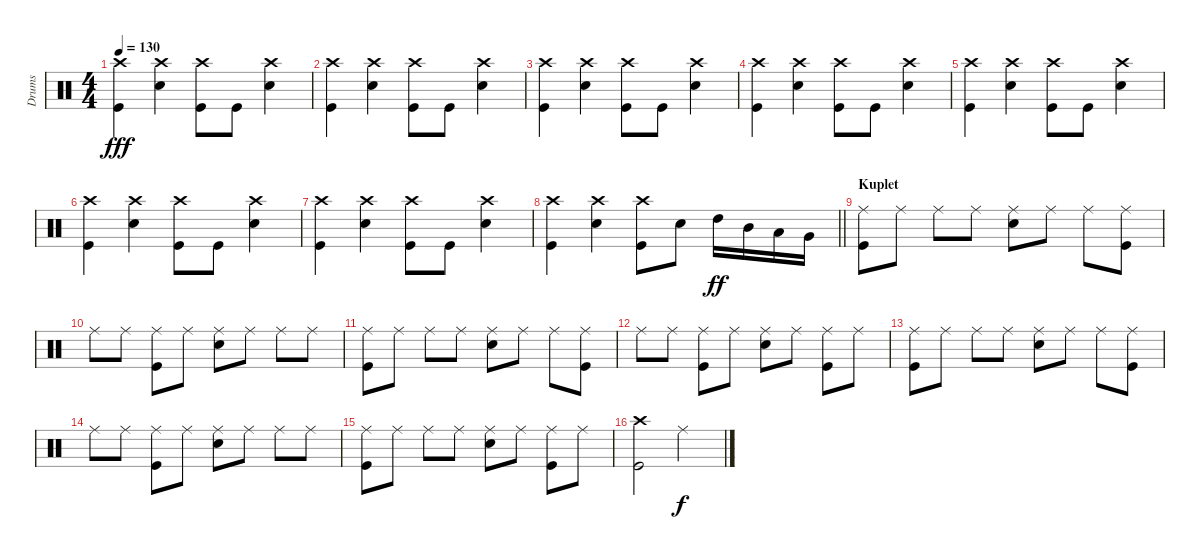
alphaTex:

\track ("Drums" "Drums") {instrument percussion}
\staff {score}
\articulation defaults
\ts (4 4)
\tempo 130
\clef neutral
\ks c
("Crash high (hit)" "Kick (hit)").4{dy fff} ("Crash high (hit)" "Snare (hit) 2").4 ("Crash high (hit)" "Kick (hit)").8 "Kick (hit)".8 ("Crash high (hit)" "Snare (hit) 2").4 |
("Crash high (hit)" "Kick (hit)").4 ("Crash high (hit)" "Snare (hit) 2").4 ("Crash high (hit)" "Kick (hit)").8 "Kick (hit)".8 ("Crash high (hit)" "Snare (hit) 2").4 |
("Crash high (hit)" "Kick (hit)").4 ("Crash high (hit)" "Snare (hit) 2").4 ("Crash high (hit)" "Kick (hit)").8 "Kick (hit)".8 ("Crash high (hit)" "Snare (hit) 2").4 |
("Crash high (hit)" "Kick (hit)").4 ("Crash high (hit)" "Snare (hit) 2").4 ("Crash high (hit)" "Kick (hit)").8 "Kick (hit)".8 ("Crash high (hit)" "Snare (hit) 2").4 |
("Crash high (hit)" "Kick (hit)").4 ("Crash high (hit)" "Snare (hit) 2").4 ("Crash high (hit)" "Kick (hit)").8 "Kick (hit)".8 ("Crash high (hit)" "Snare (hit) 2").4 |
("Crash high (hit)" "Kick (hit)").4 ("Crash high (hit)" "Snare (hit) 2").4 ("Crash high (hit)" "Kick (hit)").8 "Kick (hit)".8 ("Crash high (hit)" "Snare (hit) 2").4 |
("Crash high (hit)" "Kick (hit)").4 ("Crash high (hit)" "Snare (hit) 2").4 ("Crash high (hit)" "Kick (hit)").8 "Kick (hit)".8 ("Crash high (hit)" "Snare (hit) 2").4 |
\barLineRight lightlight
("Crash high (hit)" "Kick (hit)").4 ("Crash high (hit)" "Snare (hit) 2").4 ("Crash high (hit)" "Kick (hit)").8 "Snare (hit) 2".8 "High Tom (hit)".16{dy ff} "Mid Tom (hit)".16 "Low Tom (hit)".16 "Very Low Tom (hit)".16 |
\section ("" "Kuplet")
("Ride (middle)" "Kick (hit)").8 "Ride (middle)".8 "Ride (middle)".8 "Ride (middle)".8 ("Ride (middle)" "Snare (hit) 2").8 "Ride (middle)".8 "Ride (middle)".8 ("Ride (middle)" "Kick (hit)").8 |
"Ride (middle)".8 "Ride (middle)".8 ("Ride (middle)" "Kick (hit)").8 "Ride (middle)".8 ("Ride (middle)" "Snare (hit) 2").8 "Ride (middle)".8 "Ride (middle)".8 "Ride (middle)".8 |
("Ride (middle)" "Kick (hit)").8 "Ride (middle)".8 "Ride (middle)".8 "Ride (middle)".8 ("Ride (middle)" "Snare (hit) 2").8 "Ride (middle)".8 "Ride (middle)".8 ("Ride (middle)" "Kick (hit)").8 |
"Ride (middle)".8 "Ride (middle)".8 ("Ride (middle)" "Kick (hit)").8 "Ride (middle)".8 ("Ride (middle)" "Snare (hit) 2").8 "Ride (middle)".8 ("Ride (middle)" "Kick (hit)").8 "Ride (middle)".8 |
("Ride (middle)" "Kick (hit)").8 "Ride (middle)".8 "Ride (middle)".8 "Ride (middle)".8 ("Ride (middle)" "Snare (hit) 2").8 "Ride (middle)".8 "Ride (middle)".8 ("Ride (middle)" "Kick (hit)").8 |
"Ride (middle)".8 "Ride (middle)".8 ("Ride (middle)" "Kick (hit)").8 "Ride (middle)".8 ("Ride (middle)" "Snare (hit) 2").8 "Ride (middle)".8 "Ride (middle)".8 "Ride (middle)".8 |
("Ride (middle)" "Kick (hit)").8 "Ride (middle)".8 "Ride (middle)".8 "Ride (middle)".8 ("Ride (middle)" "Snare (hit) 2").8 "Ride (middle)".8 ("Ride (middle)" "Kick (hit)").8 "Ride (middle)".8 |
("Crash high (hit)" "Kick (hit)").2 "Ride (middle)".2{dy f}
